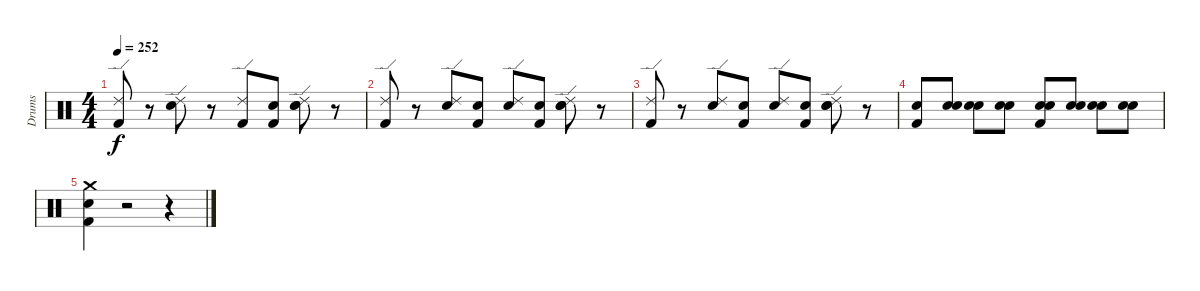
\track ("Drums" "Drums") {instrument percussion}
\staff {score}
\articulation defaults
\ts (4 4)
\tempo 252
\clef neutral
\ks c
("Ride (edge) 2" "Kick (hit) 2").8{dy f} r.8 ("Ride (edge) 2" "Electric Snare (hit)").8 r.8 ("Ride (edge) 2" "Kick (hit) 2").8 ("Snare (hit)" "Kick (hit) 2").8 ("Snare (hit)" "Ride (edge) 2" "Electric Snare (hit)").8 r.8 |
("Ride (edge) 2" "Kick (hit) 2").8 r.8 ("Ride (edge) 2" "Electric Snare (hit)").8 ("Snare (hit)" "Kick (hit) 2").8 ("Snare (hit)" "Ride (edge) 2").8 ("Snare (hit)" "Kick (hit) 2").8 ("Snare (hit)" "Ride (edge) 2" "Electric Snare (hit)").8 r.8 |
("Ride (edge) 2" "Kick (hit) 2").8 r.8 ("Ride (edge) 2" "Electric Snare (hit)").8 ("Snare (hit)" "Kick (hit) 2").8 ("Snare (hit)" "Ride (edge) 2").8 ("Snare (hit)" "Kick (hit) 2").8 ("Snare (hit)" "Ride (edge) 2" "Electric Snare (hit)").8 r.8 |
("Electric Snare (hit)" "Kick (hit) 2").8 ("Snare (hit)" "Electric Snare (hit)").8 ("Snare (hit)" "Electric Snare (hit)").8 ("Snare (hit)" "Electric Snare (hit)").8 ("Snare (hit)" "Electric Snare (hit)" "Kick (hit) 2").8 ("Snare (hit)" "Electric Snare (hit)").8 ("Snare (hit)" "Electric Snare (hit)").8 ("Snare (hit)" "Electric Snare (hit)").8 |
("Snare (hit)" "Crash medium (hit)" "Kick (hit) 2").4 r.2 r.4
